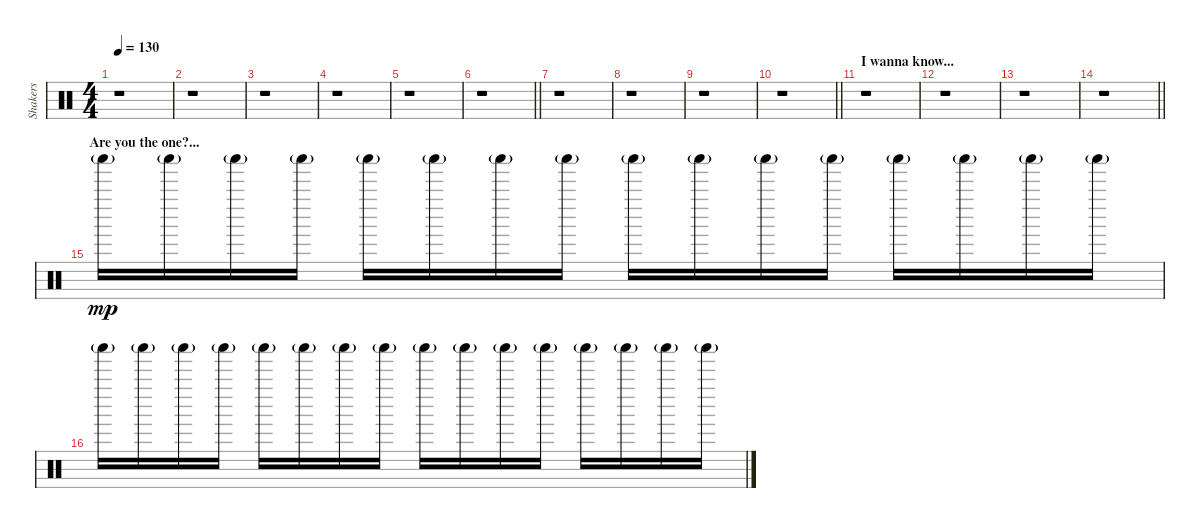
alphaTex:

\track ("Shakers" "Shakers") {instrument percussion}
\staff {score}
\articulation defaults
\ts (4 4)
\tempo 130
\clef neutral
\ks c
r.1{dy mp} |
r.1 |
r.1 |
r.1 |
r.1 |
\barLineRight lightlight
r.1 |
r.1 |
r.1 |
r.1 |
\barLineRight lightlight
r.1 |
\section ("" "I wanna know...")
r.1 |
r.1 |
r.1 |
\barLineRight lightlight
r.1 |
\section ("" "Are you the one?...")
"Shaker (hit)"{g}.16 "Shaker (hit)"{g}.16 "Shaker (hit)"{g}.16 "Shaker (hit)"{g}.16 "Shaker (hit)"{g}.16 "Shaker (hit)"{g}.16 "Shaker (hit)"{g}.16 "Shaker (hit)"{g}.16 "Shaker (hit)"{g}.16 "Shaker (hit)"{g}.16 "Shaker (hit)"{g}.16 "Shaker (hit)"{g}.16 "Shaker (hit)"{g}.16 "Shaker (hit)"{g}.16 "Shaker (hit)"{g}.16 "Shaker (hit)"{g}.16 |
"Shaker (hit)"{g}.16 "Shaker (hit)"{g}.16 "Shaker (hit)"{g}.16 "Shaker (hit)"{g}.16 "Shaker (hit)"{g}.16 "Shaker (hit)"{g}.16 "Shaker (hit)"{g}.16 "Shaker (hit)"{g}.16 "Shaker (hit)"{g}.16 "Shaker (hit)"{g}.16 "Shaker (hit)"{g}.16 "Shaker (hit)"{g}.16 "Shaker (hit)"{g}.16 "Shaker (hit)"{g}.16 "Shaker (hit)"{g}.16 "Shaker (hit)"{g}.16
